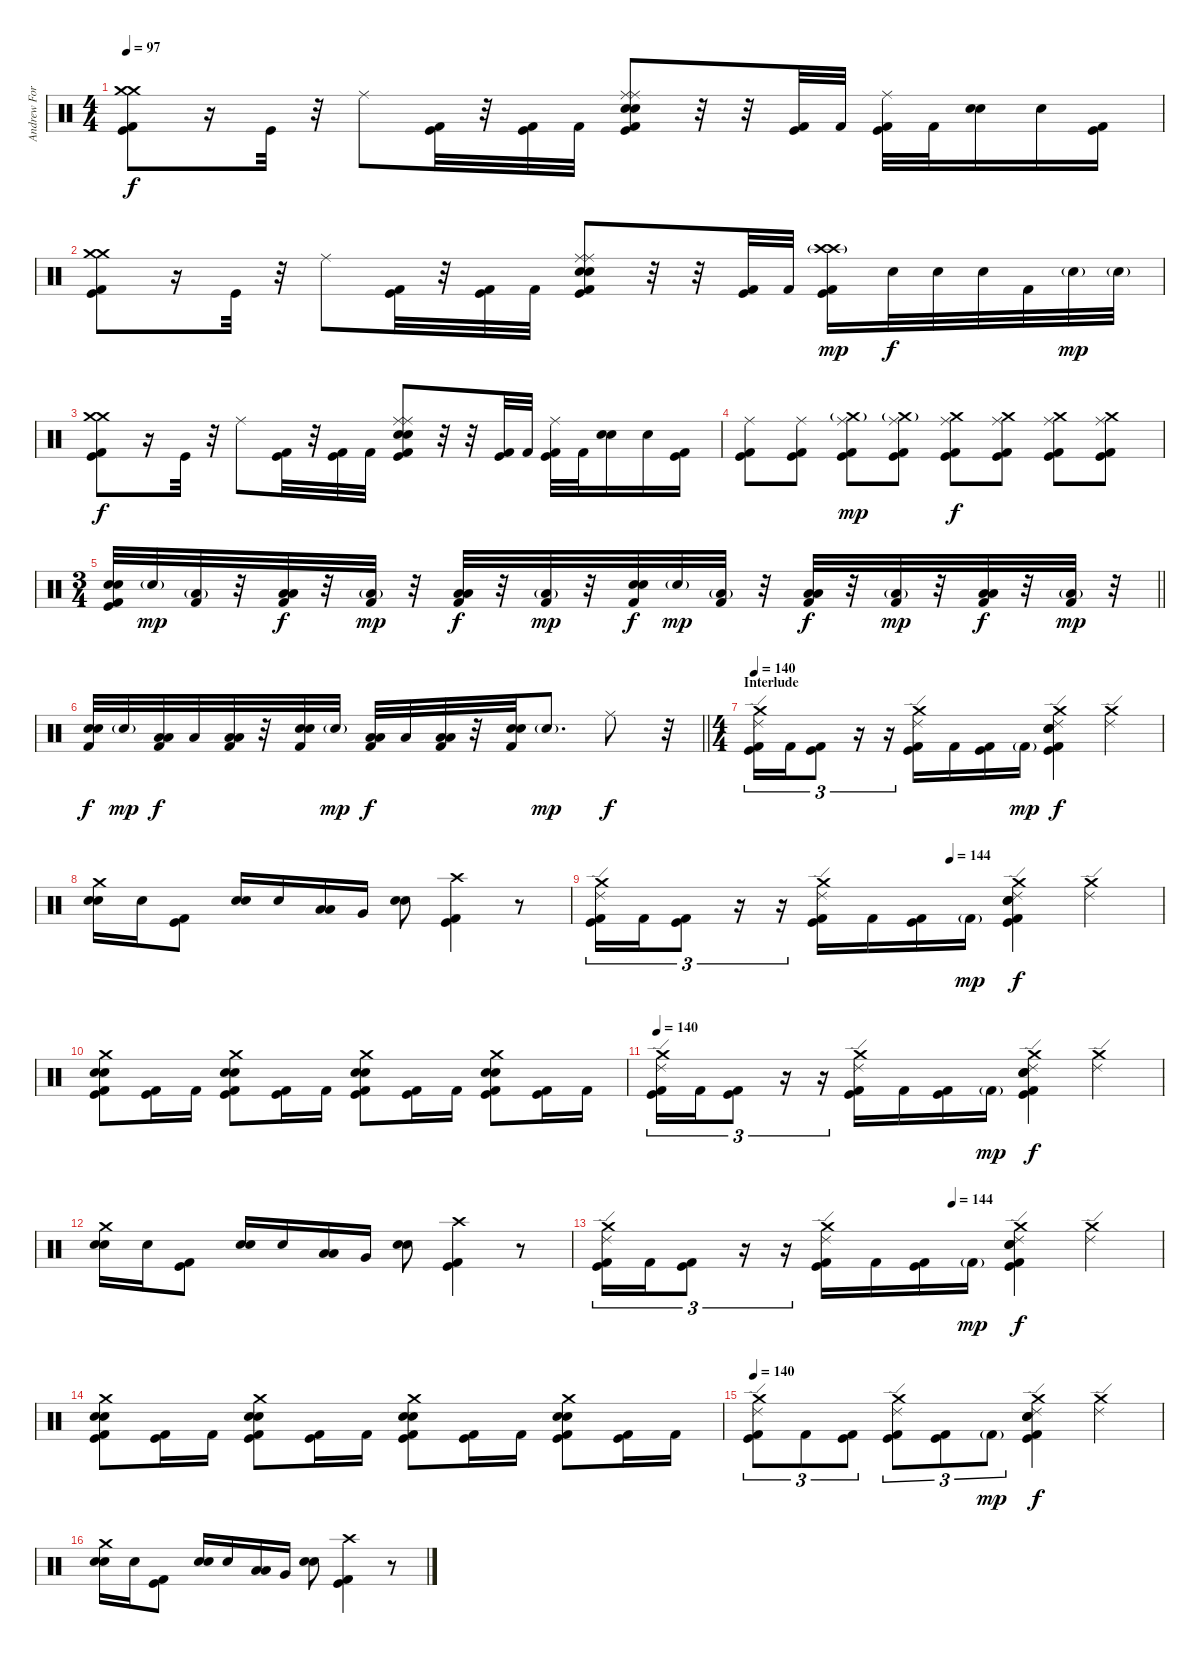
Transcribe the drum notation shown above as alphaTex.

\track ("Andrew Forsman" "Andrew For") {instrument percussion}
\staff {score}
\articulation defaults
\ts (4 4)
\tempo 97
\clef neutral
\ks c
("Crash medium (hit)" "Crash medium (hit)" "Kick (hit)" "Kick (hit) 2").8{dy f} r.16 "Kick (hit)".32 r.32 "Ride (middle)".8 ("Kick (hit)" "Kick (hit) 2").32 r.32 ("Kick (hit)" "Kick (hit) 2").32 "Kick (hit) 2".32 ("Ride (middle)" "Ride (middle)" "Electric Snare (hit)" "Electric Snare (hit)" "Kick (hit)" "Kick (hit) 2").8 r.32 r.32 ("Kick (hit)" "Kick (hit) 2").32 "Kick (hit) 2".32 ("Ride (middle)" "Kick (hit)" "Kick (hit) 2").32 "Kick (hit) 2".32 ("Electric Snare (hit)" "Electric Snare (hit)").16 "Electric Snare (hit)".16 ("Kick (hit)" "Kick (hit) 2").16 |
("Crash medium (hit)" "Crash medium (hit)" "Kick (hit)" "Kick (hit) 2").8 r.16 "Kick (hit)".32 r.32 "Ride (middle)".8 ("Kick (hit)" "Kick (hit) 2").32 r.32 ("Kick (hit)" "Kick (hit) 2").32 "Kick (hit) 2".32 ("Ride (middle)" "Ride (middle)" "Electric Snare (hit)" "Electric Snare (hit)" "Kick (hit)" "Kick (hit) 2").8 r.32 r.32 ("Kick (hit)" "Kick (hit) 2").32 "Kick (hit) 2".32 ("Crash high (hit)"{g} "Crash high (hit)"{g} "Kick (hit)" "Kick (hit) 2").16{dy mp} "Electric Snare (hit)".32{dy f} "Electric Snare (hit)".32 "Electric Snare (hit)".32 "Kick (hit) 2".32 "Electric Snare (hit)"{g}.32{dy mp} "Electric Snare (hit)"{g}.32 |
("Crash medium (hit)" "Crash medium (hit)" "Kick (hit)" "Kick (hit) 2").8{dy f} r.16 "Kick (hit)".32 r.32 "Ride (middle)".8 ("Kick (hit)" "Kick (hit) 2").32 r.32 ("Kick (hit)" "Kick (hit) 2").32 "Kick (hit) 2".32 ("Ride (middle)" "Ride (middle)" "Electric Snare (hit)" "Electric Snare (hit)" "Kick (hit)" "Kick (hit) 2").8 r.32 r.32 ("Kick (hit)" "Kick (hit) 2").32 "Kick (hit) 2".32 ("Ride (middle)" "Kick (hit)" "Kick (hit) 2").32 "Kick (hit) 2".32 ("Electric Snare (hit)" "Electric Snare (hit)").16 "Electric Snare (hit)".16 ("Kick (hit)" "Kick (hit) 2").16 |
("Ride (middle)" "Kick (hit)" "Kick (hit) 2").8 ("Ride (middle)" "Kick (hit)" "Kick (hit) 2").8 ("Crash medium (hit)"{g} "Ride (middle)" "Kick (hit)" "Kick (hit) 2").8{dy mp} ("Crash medium (hit)"{g} "Ride (middle)" "Kick (hit)" "Kick (hit) 2").8 ("Crash medium (hit)" "Ride (middle)" "Kick (hit)" "Kick (hit) 2").8{dy f} ("Crash medium (hit)" "Ride (middle)" "Kick (hit)" "Kick (hit) 2").8 ("Crash medium (hit)" "Ride (middle)" "Kick (hit)" "Kick (hit) 2").8 ("Crash medium (hit)" "Ride (middle)" "Kick (hit)" "Kick (hit) 2").8 |
\ts (3 4)
\barLineRight lightlight
("Electric Snare (hit)" "Electric Snare (hit)" "Kick (hit)" "Kick (hit) 2").32 "Electric Snare (hit)"{g}.32{dy mp} ("Low Floor Tom (hit)"{g} "Kick (hit) 2").32 r.32 ("Low Floor Tom (hit)" "Low Floor Tom (hit)" "Kick (hit) 2").32{dy f} r.32 ("Low Floor Tom (hit)"{g} "Kick (hit) 2").32{dy mp} r.32 ("Low Floor Tom (hit)" "Low Floor Tom (hit)" "Kick (hit) 2").32{dy f} r.32 ("Low Floor Tom (hit)"{g} "Kick (hit) 2").32{dy mp} r.32 ("Electric Snare (hit)" "Electric Snare (hit)" "Kick (hit) 2").32{dy f} "Electric Snare (hit)"{g}.32{dy mp} ("Low Floor Tom (hit)"{g} "Kick (hit) 2").32 r.32 ("Low Floor Tom (hit)" "Low Floor Tom (hit)" "Kick (hit) 2").32{dy f} r.32 ("Low Floor Tom (hit)"{g} "Kick (hit) 2").32{dy mp} r.32 ("Low Floor Tom (hit)" "Low Floor Tom (hit)" "Kick (hit) 2").32{dy f} r.32 ("Low Floor Tom (hit)"{g} "Kick (hit) 2").32{dy mp} r.32 |
\barLineRight lightlight
("Electric Snare (hit)" "Electric Snare (hit)" "Kick (hit) 2").32{dy f} "Electric Snare (hit)"{g}.32{dy mp} ("Low Floor Tom (hit)" "Low Floor Tom (hit)" "Kick (hit) 2").32{dy f} "Low Floor Tom (hit)".32 ("Low Floor Tom (hit)" "Low Floor Tom (hit)" "Kick (hit) 2").32 r.32 ("Electric Snare (hit)" "Electric Snare (hit)" "Kick (hit) 2").32 "Electric Snare (hit)"{g}.32{dy mp} ("Low Floor Tom (hit)" "Low Floor Tom (hit)" "Kick (hit) 2").32{dy f} "Low Floor Tom (hit)".32 ("Low Floor Tom (hit)" "Low Floor Tom (hit)" "Kick (hit) 2").32 r.32 ("Electric Snare (hit)" "Electric Snare (hit)" "Kick (hit) 2").32 "Electric Snare (hit)"{g}.8{d dy mp} "Ride (middle)".8{dy f} r.32 |
\ts (4 4)
\section ("" "Interlude")
\tempo 140
("Crash medium (hit)" "Ride (edge) 2" "Kick (hit)" "Kick (hit) 2").16{tu (3 2)} "Kick (hit) 2".16{tu (3 2)} ("Kick (hit)" "Kick (hit) 2").8{tu (3 2)} r.16{tu (3 2)} r.16{tu (3 2)} ("Crash medium (hit)" "Ride (edge) 2" "Kick (hit)" "Kick (hit) 2").16 "Kick (hit) 2".16 ("Kick (hit)" "Kick (hit) 2").16 "Kick (hit) 2"{g}.16{dy mp} ("Crash medium (hit)" "Ride (edge) 2" "Electric Snare (hit)" "Electric Snare (hit)" "Kick (hit)" "Kick (hit) 2").4{dy f} ("Crash medium (hit)" "Ride (edge) 2").4 |
("Crash medium (hit)" "Electric Snare (hit)" "Electric Snare (hit)").16 "Electric Snare (hit)".16 ("Kick (hit)" "Kick (hit) 2").8 ("Electric Snare (hit)" "Electric Snare (hit)").16 "Electric Snare (hit)".16 ("Low Tom (hit)" "Low Tom (hit)").16 "Very Low Tom (hit)".16 ("Electric Snare (hit)" "Electric Snare (hit)").8 ("Crash high (hit)" "Kick (hit)" "Kick (hit) 2").4 r.8 |
\tempo (144 0.625)
("Crash medium (hit)" "Ride (edge) 2" "Kick (hit)" "Kick (hit) 2").16{tu (3 2)} "Kick (hit) 2".16{tu (3 2)} ("Kick (hit)" "Kick (hit) 2").8{tu (3 2)} r.16{tu (3 2)} r.16{tu (3 2)} ("Crash medium (hit)" "Ride (edge) 2" "Kick (hit)" "Kick (hit) 2").16 "Kick (hit) 2".16 ("Kick (hit)" "Kick (hit) 2").16 "Kick (hit) 2"{g}.16{dy mp} ("Crash medium (hit)" "Ride (edge) 2" "Electric Snare (hit)" "Electric Snare (hit)" "Kick (hit)" "Kick (hit) 2").4{dy f} ("Crash medium (hit)" "Ride (edge) 2").4 |
("Crash medium (hit)" "Electric Snare (hit)" "Electric Snare (hit)" "Kick (hit)" "Kick (hit) 2").8 ("Kick (hit)" "Kick (hit) 2").16 "Kick (hit) 2".16 ("Crash medium (hit)" "Electric Snare (hit)" "Electric Snare (hit)" "Kick (hit)" "Kick (hit) 2").8 ("Kick (hit)" "Kick (hit) 2").16 "Kick (hit) 2".16 ("Crash medium (hit)" "Electric Snare (hit)" "Electric Snare (hit)" "Kick (hit)" "Kick (hit) 2").8 ("Kick (hit)" "Kick (hit) 2").16 "Kick (hit) 2".16 ("Crash medium (hit)" "Electric Snare (hit)" "Electric Snare (hit)" "Kick (hit)" "Kick (hit) 2").8 ("Kick (hit)" "Kick (hit) 2").16 "Kick (hit) 2".16 |
\tempo 140
("Crash medium (hit)" "Ride (edge) 2" "Kick (hit)" "Kick (hit) 2").16{tu (3 2)} "Kick (hit) 2".16{tu (3 2)} ("Kick (hit)" "Kick (hit) 2").8{tu (3 2)} r.16{tu (3 2)} r.16{tu (3 2)} ("Crash medium (hit)" "Ride (edge) 2" "Kick (hit)" "Kick (hit) 2").16 "Kick (hit) 2".16 ("Kick (hit)" "Kick (hit) 2").16 "Kick (hit) 2"{g}.16{dy mp} ("Crash medium (hit)" "Ride (edge) 2" "Electric Snare (hit)" "Electric Snare (hit)" "Kick (hit)" "Kick (hit) 2").4{dy f} ("Crash medium (hit)" "Ride (edge) 2").4 |
("Crash medium (hit)" "Electric Snare (hit)" "Electric Snare (hit)").16 "Electric Snare (hit)".16 ("Kick (hit)" "Kick (hit) 2").8 ("Electric Snare (hit)" "Electric Snare (hit)").16 "Electric Snare (hit)".16 ("Low Tom (hit)" "Low Tom (hit)").16 "Very Low Tom (hit)".16 ("Electric Snare (hit)" "Electric Snare (hit)").8 ("Crash high (hit)" "Kick (hit)" "Kick (hit) 2").4 r.8 |
\tempo (144 0.625)
("Crash medium (hit)" "Ride (edge) 2" "Kick (hit)" "Kick (hit) 2").16{tu (3 2)} "Kick (hit) 2".16{tu (3 2)} ("Kick (hit)" "Kick (hit) 2").8{tu (3 2)} r.16{tu (3 2)} r.16{tu (3 2)} ("Crash medium (hit)" "Ride (edge) 2" "Kick (hit)" "Kick (hit) 2").16 "Kick (hit) 2".16 ("Kick (hit)" "Kick (hit) 2").16 "Kick (hit) 2"{g}.16{dy mp} ("Crash medium (hit)" "Ride (edge) 2" "Electric Snare (hit)" "Electric Snare (hit)" "Kick (hit)" "Kick (hit) 2").4{dy f} ("Crash medium (hit)" "Ride (edge) 2").4 |
("Crash medium (hit)" "Electric Snare (hit)" "Electric Snare (hit)" "Kick (hit)" "Kick (hit) 2").8 ("Kick (hit)" "Kick (hit) 2").16 "Kick (hit) 2".16 ("Crash medium (hit)" "Electric Snare (hit)" "Electric Snare (hit)" "Kick (hit)" "Kick (hit) 2").8 ("Kick (hit)" "Kick (hit) 2").16 "Kick (hit) 2".16 ("Crash medium (hit)" "Electric Snare (hit)" "Electric Snare (hit)" "Kick (hit)" "Kick (hit) 2").8 ("Kick (hit)" "Kick (hit) 2").16 "Kick (hit) 2".16 ("Crash medium (hit)" "Electric Snare (hit)" "Electric Snare (hit)" "Kick (hit)" "Kick (hit) 2").8 ("Kick (hit)" "Kick (hit) 2").16 "Kick (hit) 2".16 |
\tempo 140
("Crash medium (hit)" "Ride (edge) 2" "Kick (hit)" "Kick (hit) 2").8{tu (3 2)} "Kick (hit) 2".8{tu (3 2)} ("Kick (hit)" "Kick (hit) 2").8{tu (3 2)} ("Crash medium (hit)" "Ride (edge) 2" "Kick (hit)" "Kick (hit) 2").8{tu (3 2)} ("Kick (hit)" "Kick (hit) 2").8{tu (3 2)} "Kick (hit) 2"{g}.8{tu (3 2) dy mp} ("Crash medium (hit)" "Ride (edge) 2" "Electric Snare (hit)" "Electric Snare (hit)" "Kick (hit)" "Kick (hit) 2").4{dy f} ("Crash medium (hit)" "Ride (edge) 2").4 |
("Crash medium (hit)" "Electric Snare (hit)" "Electric Snare (hit)").16 "Electric Snare (hit)".16 ("Kick (hit)" "Kick (hit) 2").8 ("Electric Snare (hit)" "Electric Snare (hit)").16 "Electric Snare (hit)".16 ("Low Tom (hit)" "Low Tom (hit)").16 "Very Low Tom (hit)".16 ("Electric Snare (hit)" "Electric Snare (hit)").8 ("Crash high (hit)" "Kick (hit)" "Kick (hit) 2").4 r.8
